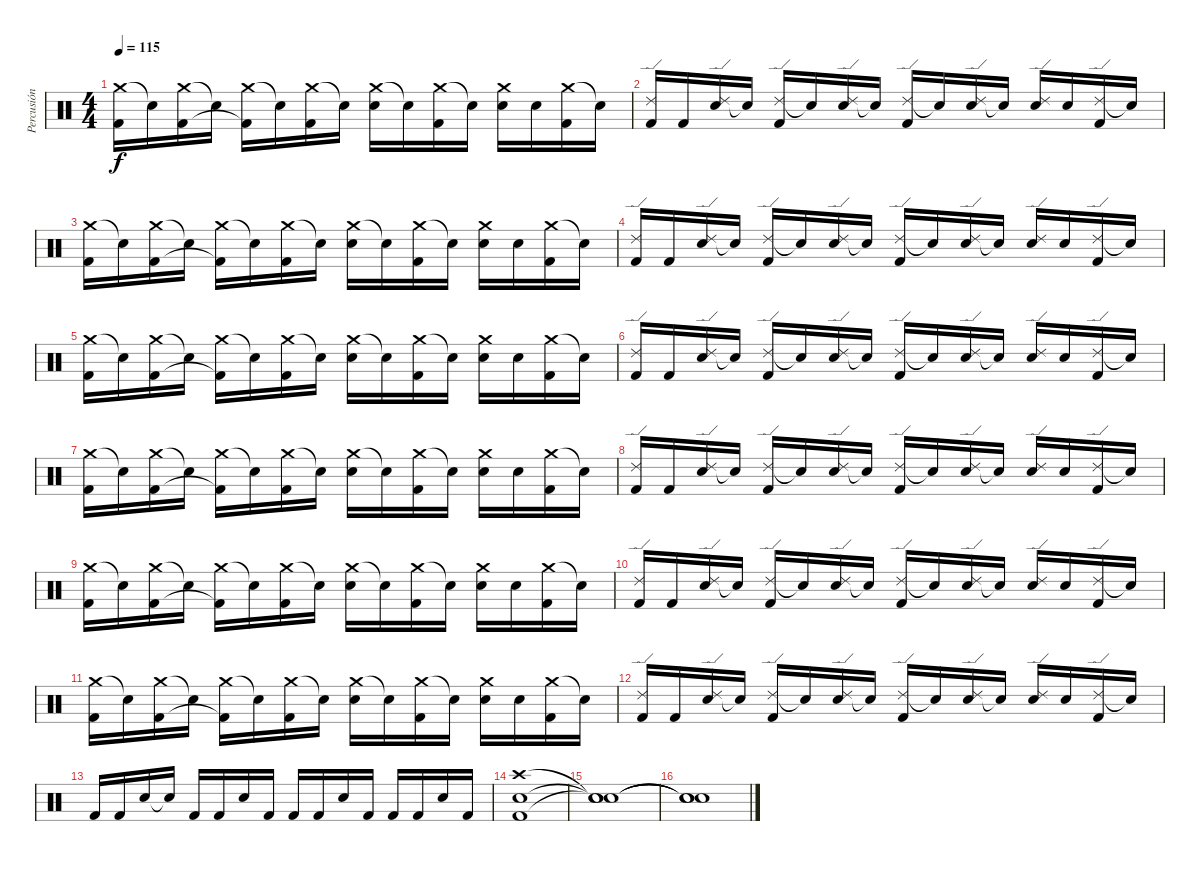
\track ("Percusión" "Percusión") {instrument percussion}
\staff {score}
\articulation defaults
\ts (4 4)
\tempo 115
\clef neutral
\ks c
("Crash medium (hit)" "Kick (hit) 2").16{dy f} "Snare (hit)"{t}.16 ("Crash medium (hit)" "Kick (hit) 2").16 "Snare (hit)"{t}.16 ("Crash medium (hit)" "Kick (hit) 2"{t}).16 "Snare (hit)"{t}.16 ("Crash medium (hit)" "Kick (hit) 2").16 "Snare (hit)"{t}.16 ("Crash medium (hit)" "Electric Snare (hit)").16 "Snare (hit)"{t}.16 ("Crash medium (hit)" "Kick (hit) 2").16 "Snare (hit)"{t}.16 ("Crash medium (hit)" "Electric Snare (hit)").16 "Electric Snare (hit)".16 ("Crash medium (hit)" "Kick (hit) 2").16 "Electric Snare (hit)"{t}.16 |
("Ride (edge) 2" "Kick (hit) 2").16 "Kick (hit) 2".16 ("Ride (edge) 2" "Electric Snare (hit)").16 "Snare (hit)"{t}.16 ("Ride (edge) 2" "Kick (hit) 2").16 "Snare (hit)"{t}.16 ("Ride (edge) 2" "Electric Snare (hit)").16 "Snare (hit)"{t}.16 ("Ride (edge) 2" "Kick (hit) 2").16 "Snare (hit)"{t}.16 ("Ride (edge) 2" "Electric Snare (hit)").16 "Snare (hit)"{t}.16 ("Ride (edge) 2" "Electric Snare (hit)").16 "Electric Snare (hit)".16 ("Ride (edge) 2" "Kick (hit) 2").16 "Snare (hit)"{t}.16 |
("Crash medium (hit)" "Kick (hit) 2").16 "Snare (hit)"{t}.16 ("Crash medium (hit)" "Kick (hit) 2").16 "Snare (hit)"{t}.16 ("Crash medium (hit)" "Kick (hit) 2"{t}).16 "Snare (hit)"{t}.16 ("Crash medium (hit)" "Kick (hit) 2").16 "Snare (hit)"{t}.16 ("Crash medium (hit)" "Electric Snare (hit)").16 "Snare (hit)"{t}.16 ("Crash medium (hit)" "Kick (hit) 2").16 "Snare (hit)"{t}.16 ("Crash medium (hit)" "Electric Snare (hit)").16 "Electric Snare (hit)".16 ("Crash medium (hit)" "Kick (hit) 2").16 "Electric Snare (hit)"{t}.16 |
("Ride (edge) 2" "Kick (hit) 2").16 "Kick (hit) 2".16 ("Ride (edge) 2" "Electric Snare (hit)").16 "Snare (hit)"{t}.16 ("Ride (edge) 2" "Kick (hit) 2").16 "Snare (hit)"{t}.16 ("Ride (edge) 2" "Electric Snare (hit)").16 "Snare (hit)"{t}.16 ("Ride (edge) 2" "Kick (hit) 2").16 "Snare (hit)"{t}.16 ("Ride (edge) 2" "Electric Snare (hit)").16 "Snare (hit)"{t}.16 ("Ride (edge) 2" "Electric Snare (hit)").16 "Electric Snare (hit)".16 ("Ride (edge) 2" "Kick (hit) 2").16 "Snare (hit)"{t}.16 |
("Crash medium (hit)" "Kick (hit) 2").16 "Snare (hit)"{t}.16 ("Crash medium (hit)" "Kick (hit) 2").16 "Snare (hit)"{t}.16 ("Crash medium (hit)" "Kick (hit) 2"{t}).16 "Snare (hit)"{t}.16 ("Crash medium (hit)" "Kick (hit) 2").16 "Snare (hit)"{t}.16 ("Crash medium (hit)" "Electric Snare (hit)").16 "Snare (hit)"{t}.16 ("Crash medium (hit)" "Kick (hit) 2").16 "Snare (hit)"{t}.16 ("Crash medium (hit)" "Electric Snare (hit)").16 "Electric Snare (hit)".16 ("Crash medium (hit)" "Kick (hit) 2").16 "Electric Snare (hit)"{t}.16 |
("Ride (edge) 2" "Kick (hit) 2").16 "Kick (hit) 2".16 ("Ride (edge) 2" "Electric Snare (hit)").16 "Snare (hit)"{t}.16 ("Ride (edge) 2" "Kick (hit) 2").16 "Snare (hit)"{t}.16 ("Ride (edge) 2" "Electric Snare (hit)").16 "Snare (hit)"{t}.16 ("Ride (edge) 2" "Kick (hit) 2").16 "Snare (hit)"{t}.16 ("Ride (edge) 2" "Electric Snare (hit)").16 "Snare (hit)"{t}.16 ("Ride (edge) 2" "Electric Snare (hit)").16 "Electric Snare (hit)".16 ("Ride (edge) 2" "Kick (hit) 2").16 "Snare (hit)"{t}.16 |
("Crash medium (hit)" "Kick (hit) 2").16 "Snare (hit)"{t}.16 ("Crash medium (hit)" "Kick (hit) 2").16 "Snare (hit)"{t}.16 ("Crash medium (hit)" "Kick (hit) 2"{t}).16 "Snare (hit)"{t}.16 ("Crash medium (hit)" "Kick (hit) 2").16 "Snare (hit)"{t}.16 ("Crash medium (hit)" "Electric Snare (hit)").16 "Snare (hit)"{t}.16 ("Crash medium (hit)" "Kick (hit) 2").16 "Snare (hit)"{t}.16 ("Crash medium (hit)" "Electric Snare (hit)").16 "Electric Snare (hit)".16 ("Crash medium (hit)" "Kick (hit) 2").16 "Electric Snare (hit)"{t}.16 |
("Ride (edge) 2" "Kick (hit) 2").16 "Kick (hit) 2".16 ("Ride (edge) 2" "Electric Snare (hit)").16 "Snare (hit)"{t}.16 ("Ride (edge) 2" "Kick (hit) 2").16 "Snare (hit)"{t}.16 ("Ride (edge) 2" "Electric Snare (hit)").16 "Snare (hit)"{t}.16 ("Ride (edge) 2" "Kick (hit) 2").16 "Snare (hit)"{t}.16 ("Ride (edge) 2" "Electric Snare (hit)").16 "Snare (hit)"{t}.16 ("Ride (edge) 2" "Electric Snare (hit)").16 "Electric Snare (hit)".16 ("Ride (edge) 2" "Kick (hit) 2").16 "Snare (hit)"{t}.16 |
("Crash medium (hit)" "Kick (hit) 2").16 "Snare (hit)"{t}.16 ("Crash medium (hit)" "Kick (hit) 2").16 "Snare (hit)"{t}.16 ("Crash medium (hit)" "Kick (hit) 2"{t}).16 "Snare (hit)"{t}.16 ("Crash medium (hit)" "Kick (hit) 2").16 "Snare (hit)"{t}.16 ("Crash medium (hit)" "Electric Snare (hit)").16 "Snare (hit)"{t}.16 ("Crash medium (hit)" "Kick (hit) 2").16 "Snare (hit)"{t}.16 ("Crash medium (hit)" "Electric Snare (hit)").16 "Electric Snare (hit)".16 ("Crash medium (hit)" "Kick (hit) 2").16 "Electric Snare (hit)"{t}.16 |
("Ride (edge) 2" "Kick (hit) 2").16 "Kick (hit) 2".16 ("Ride (edge) 2" "Electric Snare (hit)").16 "Snare (hit)"{t}.16 ("Ride (edge) 2" "Kick (hit) 2").16 "Snare (hit)"{t}.16 ("Ride (edge) 2" "Electric Snare (hit)").16 "Snare (hit)"{t}.16 ("Ride (edge) 2" "Kick (hit) 2").16 "Snare (hit)"{t}.16 ("Ride (edge) 2" "Electric Snare (hit)").16 "Snare (hit)"{t}.16 ("Ride (edge) 2" "Electric Snare (hit)").16 "Electric Snare (hit)".16 ("Ride (edge) 2" "Kick (hit) 2").16 "Snare (hit)"{t}.16 |
("Crash medium (hit)" "Kick (hit) 2").16 "Snare (hit)"{t}.16 ("Crash medium (hit)" "Kick (hit) 2").16 "Snare (hit)"{t}.16 ("Crash medium (hit)" "Kick (hit) 2"{t}).16 "Snare (hit)"{t}.16 ("Crash medium (hit)" "Kick (hit) 2").16 "Snare (hit)"{t}.16 ("Crash medium (hit)" "Electric Snare (hit)").16 "Snare (hit)"{t}.16 ("Crash medium (hit)" "Kick (hit) 2").16 "Snare (hit)"{t}.16 ("Crash medium (hit)" "Electric Snare (hit)").16 "Electric Snare (hit)".16 ("Crash medium (hit)" "Kick (hit) 2").16 "Electric Snare (hit)"{t}.16 |
("Ride (edge) 2" "Kick (hit) 2").16 "Kick (hit) 2".16 ("Ride (edge) 2" "Electric Snare (hit)").16 "Snare (hit)"{t}.16 ("Ride (edge) 2" "Kick (hit) 2").16 "Snare (hit)"{t}.16 ("Ride (edge) 2" "Electric Snare (hit)").16 "Snare (hit)"{t}.16 ("Ride (edge) 2" "Kick (hit) 2").16 "Snare (hit)"{t}.16 ("Ride (edge) 2" "Electric Snare (hit)").16 "Snare (hit)"{t}.16 ("Ride (edge) 2" "Electric Snare (hit)").16 "Electric Snare (hit)".16 ("Ride (edge) 2" "Kick (hit) 2").16 "Snare (hit)"{t}.16 |
"Kick (hit) 2".16 "Kick (hit) 2".16 "Electric Snare (hit)".16 "Snare (hit)"{t}.16 "Kick (hit) 2".16 "Kick (hit) 2".16 "Electric Snare (hit)".16 "Kick (hit) 2".16 "Kick (hit) 2".16 "Kick (hit) 2".16 "Electric Snare (hit)".16 "Kick (hit) 2".16 "Kick (hit) 2".16 "Kick (hit) 2".16 "Electric Snare (hit)".16 "Kick (hit) 2".16 |
("Crash high (hit)" "Electric Snare (hit)" "Kick (hit) 2").1 |
("Snare (hit)"{t} "Snare (hit)"{t} "Snare (hit)"{t}).1 |
("Snare (hit)"{t} "Snare (hit)"{t} "Snare (hit)"{t}).1
